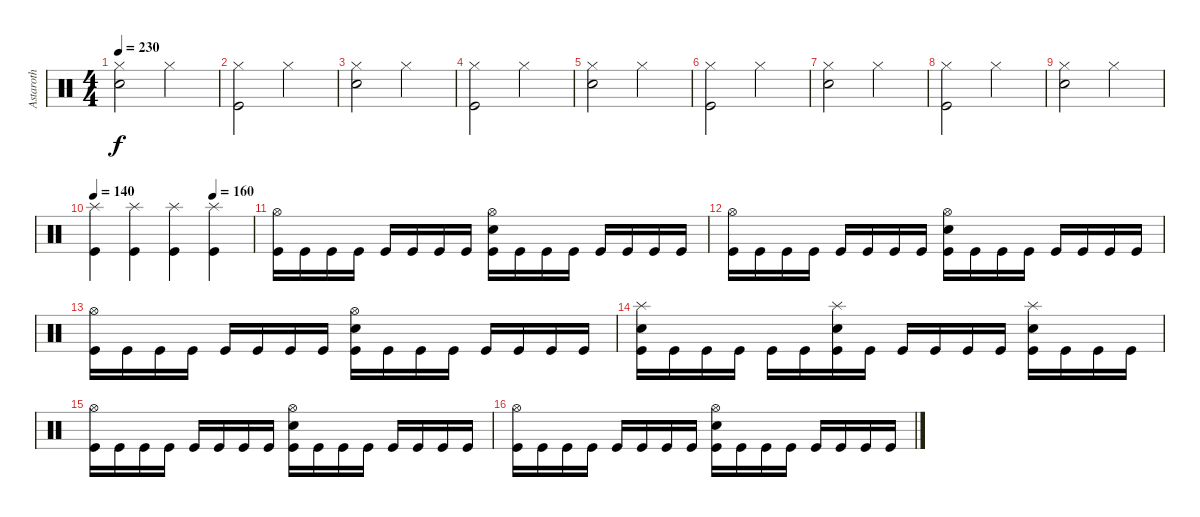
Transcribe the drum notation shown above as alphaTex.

\track ("Astaroth" "Astaroth") {instrument percussion}
\staff {score}
\articulation defaults
\ts (4 4)
\tempo 230
\clef neutral
\ks c
("Electric Snare (hit)" "Hi-Hat (closed)").2{dy f} "Hi-Hat (closed)".2 |
("Kick (hit)" "Hi-Hat (closed)").2 "Hi-Hat (closed)".2 |
("Electric Snare (hit)" "Hi-Hat (closed)").2 "Hi-Hat (closed)".2 |
("Kick (hit)" "Hi-Hat (closed)").2 "Hi-Hat (closed)".2 |
("Electric Snare (hit)" "Hi-Hat (closed)").2 "Hi-Hat (closed)".2 |
("Kick (hit)" "Hi-Hat (closed)").2 "Hi-Hat (closed)".2 |
("Electric Snare (hit)" "Hi-Hat (closed)").2 "Hi-Hat (closed)".2 |
("Kick (hit)" "Hi-Hat (closed)").2 "Hi-Hat (closed)".2 |
("Electric Snare (hit)" "Hi-Hat (closed)").2 "Hi-Hat (closed)".2 |
\tempo 140
\tempo (160 0.75)
("Kick (hit)" "Splash (hit)").4 ("Kick (hit)" "Splash (hit)").4 ("Kick (hit)" "Splash (hit)").4 ("Kick (hit)" "Splash (hit)").4 |
("Kick (hit)" "Hi-Hat (open)").16{volume 13} "Kick (hit)".16 "Kick (hit)".16 "Kick (hit)".16 "Kick (hit)".16 "Kick (hit)".16 "Kick (hit)".16 "Kick (hit)".16 ("Kick (hit)" "Hi-Hat (open)" "Electric Snare (hit)").16 "Kick (hit)".16 "Kick (hit)".16 "Kick (hit)".16 "Kick (hit)".16 "Kick (hit)".16 "Kick (hit)".16 "Kick (hit)".16 |
("Kick (hit)" "Hi-Hat (open)").16 "Kick (hit)".16 "Kick (hit)".16 "Kick (hit)".16 "Kick (hit)".16 "Kick (hit)".16 "Kick (hit)".16 "Kick (hit)".16 ("Kick (hit)" "Hi-Hat (open)" "Electric Snare (hit)").16 "Kick (hit)".16 "Kick (hit)".16 "Kick (hit)".16 "Kick (hit)".16 "Kick (hit)".16 "Kick (hit)".16 "Kick (hit)".16 |
("Kick (hit)" "Hi-Hat (open)").16 "Kick (hit)".16 "Kick (hit)".16 "Kick (hit)".16 "Kick (hit)".16 "Kick (hit)".16 "Kick (hit)".16 "Kick (hit)".16 ("Kick (hit)" "Hi-Hat (open)" "Electric Snare (hit)").16 "Kick (hit)".16 "Kick (hit)".16 "Kick (hit)".16 "Kick (hit)".16 "Kick (hit)".16 "Kick (hit)".16 "Kick (hit)".16 |
("Kick (hit)" "Splash (hit)" "Electric Snare (hit)").16 "Kick (hit)".16 "Kick (hit)".16 "Kick (hit)".16 "Kick (hit)".16 "Kick (hit)".16 ("Kick (hit)" "Splash (hit)" "Electric Snare (hit)").16 "Kick (hit)".16 "Kick (hit)".16 "Kick (hit)".16 "Kick (hit)".16 "Kick (hit)".16 ("Kick (hit)" "Splash (hit)" "Electric Snare (hit)").16 "Kick (hit)".16 "Kick (hit)".16 "Kick (hit)".16 |
("Kick (hit)" "Hi-Hat (open)").16 "Kick (hit)".16 "Kick (hit)".16 "Kick (hit)".16 "Kick (hit)".16 "Kick (hit)".16 "Kick (hit)".16 "Kick (hit)".16 ("Kick (hit)" "Hi-Hat (open)" "Electric Snare (hit)").16 "Kick (hit)".16 "Kick (hit)".16 "Kick (hit)".16 "Kick (hit)".16 "Kick (hit)".16 "Kick (hit)".16 "Kick (hit)".16 |
("Kick (hit)" "Hi-Hat (open)").16 "Kick (hit)".16 "Kick (hit)".16 "Kick (hit)".16 "Kick (hit)".16 "Kick (hit)".16 "Kick (hit)".16 "Kick (hit)".16 ("Kick (hit)" "Hi-Hat (open)" "Electric Snare (hit)").16 "Kick (hit)".16 "Kick (hit)".16 "Kick (hit)".16 "Kick (hit)".16 "Kick (hit)".16 "Kick (hit)".16 "Kick (hit)".16
